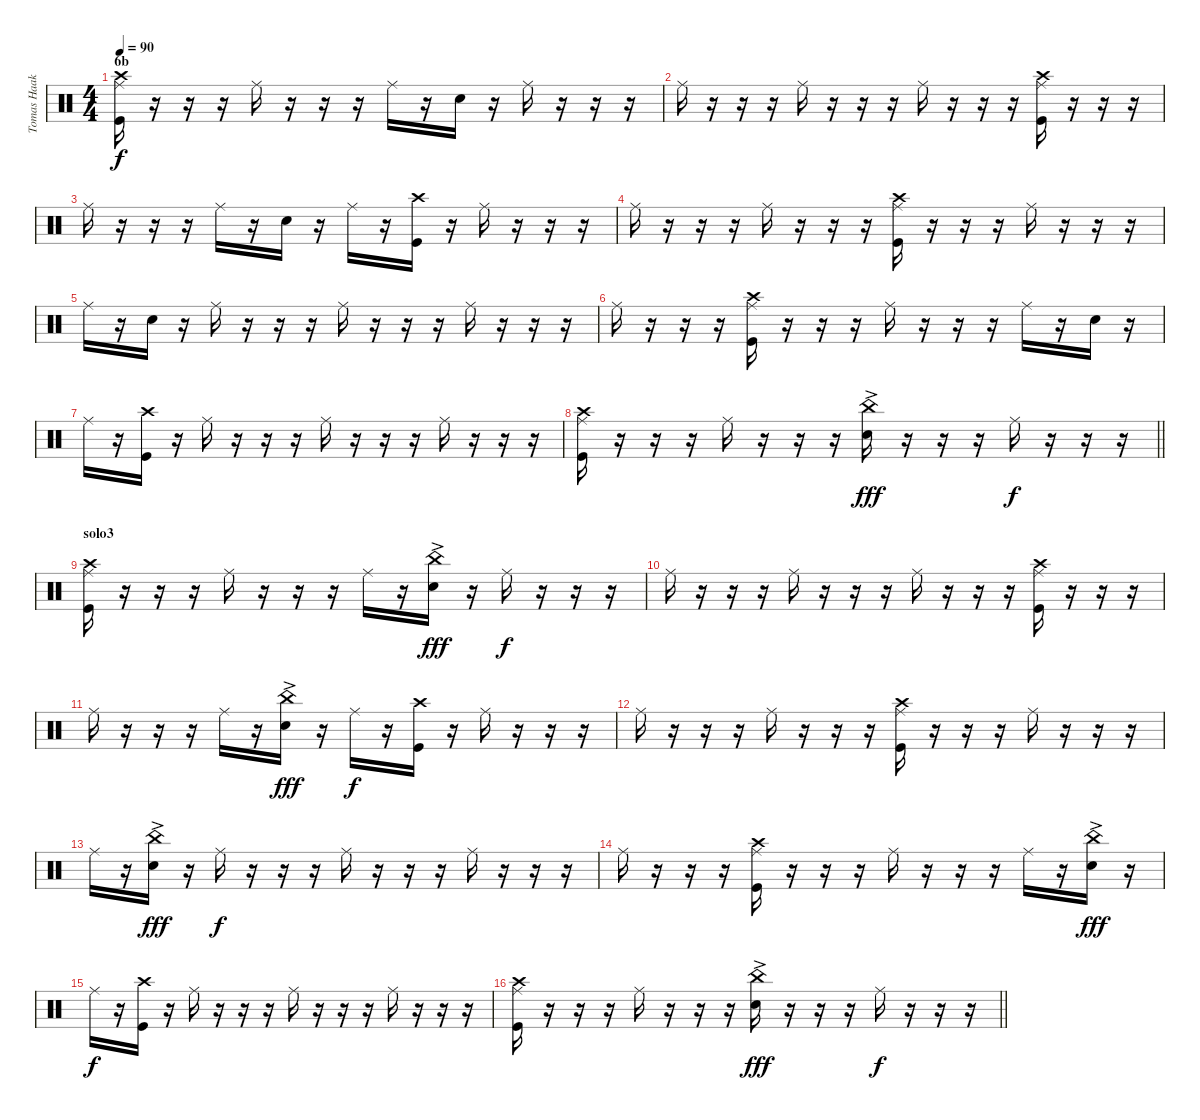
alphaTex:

\track ("Tomas Haake" "Tomas Haak") {instrument percussion}
\staff {score}
\articulation defaults
\ts (4 4)
\section ("" "6b")
\tempo 90
\clef neutral
\ks c
("Crash high (hit)" "Ride (middle)" "Kick (hit)").16{dy f} r.16 r.16 r.16 "Ride (middle)".16 r.16 r.16 r.16 "Ride (middle)".16 r.16 "Electric Snare (hit)".16 r.16 "Ride (middle)".16 r.16 r.16 r.16 |
"Ride (middle)".16 r.16 r.16 r.16 "Ride (middle)".16 r.16 r.16 r.16 "Ride (middle)".16 r.16 r.16 r.16 ("Crash high (hit)" "Ride (middle)" "Kick (hit)").16 r.16 r.16 r.16 |
"Ride (middle)".16 r.16 r.16 r.16 "Ride (middle)".16 r.16 "Electric Snare (hit)".16 r.16 "Ride (middle)".16 r.16 ("Crash high (hit)" "Kick (hit)").16 r.16 "Ride (middle)".16 r.16 r.16 r.16 |
"Ride (middle)".16 r.16 r.16 r.16 "Ride (middle)".16 r.16 r.16 r.16 ("Crash high (hit)" "Ride (middle)" "Kick (hit)").16 r.16 r.16 r.16 "Ride (middle)".16 r.16 r.16 r.16 |
"Ride (middle)".16 r.16 "Electric Snare (hit)".16 r.16 "Ride (middle)".16 r.16 r.16 r.16 "Ride (middle)".16 r.16 r.16 r.16 "Ride (middle)".16 r.16 r.16 r.16 |
"Ride (middle)".16 r.16 r.16 r.16 ("Crash high (hit)" "Ride (middle)" "Kick (hit)").16 r.16 r.16 r.16 "Ride (middle)".16 r.16 r.16 r.16 "Ride (middle)".16 r.16 "Electric Snare (hit)".16 r.16 |
"Ride (middle)".16 r.16 ("Crash high (hit)" "Kick (hit)").16 r.16 "Ride (middle)".16 r.16 r.16 r.16 "Ride (middle)".16 r.16 r.16 r.16 "Ride (middle)".16 r.16 r.16 r.16 |
\barLineRight lightlight
("Crash high (hit)" "Ride (middle)" "Kick (hit)").16 r.16 r.16 r.16 "Ride (middle)".16 r.16 r.16 r.16 ("China (hit)"{ac} "Electric Snare (hit)").16{dy fff} r.16 r.16 r.16 "Ride (middle)".16{dy f} r.16 r.16 r.16 |
\section ("" "solo3")
("Crash high (hit)" "Ride (middle)" "Kick (hit)").16 r.16 r.16 r.16 "Ride (middle)".16 r.16 r.16 r.16 "Ride (middle)".16 r.16 ("China (hit)"{ac} "Electric Snare (hit)").16{dy fff} r.16 "Ride (middle)".16{dy f} r.16 r.16 r.16 |
"Ride (middle)".16 r.16 r.16 r.16 "Ride (middle)".16 r.16 r.16 r.16 "Ride (middle)".16 r.16 r.16 r.16 ("Crash high (hit)" "Ride (middle)" "Kick (hit)").16 r.16 r.16 r.16 |
"Ride (middle)".16 r.16 r.16 r.16 "Ride (middle)".16 r.16 ("China (hit)"{ac} "Electric Snare (hit)").16{dy fff} r.16 "Ride (middle)".16{dy f} r.16 ("Crash high (hit)" "Kick (hit)").16 r.16 "Ride (middle)".16 r.16 r.16 r.16 |
"Ride (middle)".16 r.16 r.16 r.16 "Ride (middle)".16 r.16 r.16 r.16 ("Crash high (hit)" "Ride (middle)" "Kick (hit)").16 r.16 r.16 r.16 "Ride (middle)".16 r.16 r.16 r.16 |
"Ride (middle)".16 r.16 ("China (hit)"{ac} "Electric Snare (hit)").16{dy fff} r.16 "Ride (middle)".16{dy f} r.16 r.16 r.16 "Ride (middle)".16 r.16 r.16 r.16 "Ride (middle)".16 r.16 r.16 r.16 |
"Ride (middle)".16 r.16 r.16 r.16 ("Crash high (hit)" "Ride (middle)" "Kick (hit)").16 r.16 r.16 r.16 "Ride (middle)".16 r.16 r.16 r.16 "Ride (middle)".16 r.16 ("China (hit)"{ac} "Electric Snare (hit)").16{dy fff} r.16 |
"Ride (middle)".16{dy f} r.16 ("Crash high (hit)" "Kick (hit)").16 r.16 "Ride (middle)".16 r.16 r.16 r.16 "Ride (middle)".16 r.16 r.16 r.16 "Ride (middle)".16 r.16 r.16 r.16 |
\barLineRight lightlight
("Crash high (hit)" "Ride (middle)" "Kick (hit)").16 r.16 r.16 r.16 "Ride (middle)".16 r.16 r.16 r.16 ("China (hit)"{ac} "Electric Snare (hit)").16{dy fff} r.16 r.16 r.16 "Ride (middle)".16{dy f} r.16 r.16 r.16
